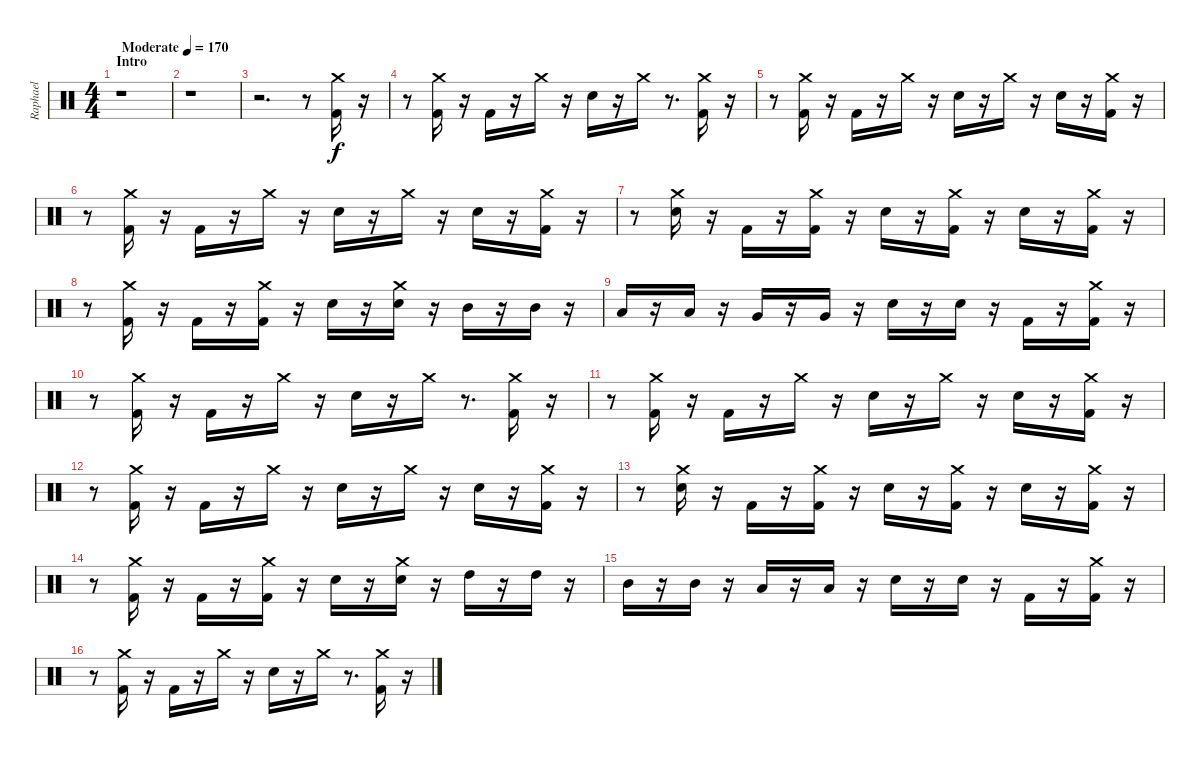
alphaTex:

\track ("Raphael" "Raphael") {instrument percussion}
\staff {score}
\articulation defaults
\ts (4 4)
\section ("" "Intro")
\tempo (170 "Moderate")
\clef neutral
\ks c
r.1{dy f} |
r.1 |
r.2{d} r.8 ("Kick (hit) 2" "Crash medium (hit)").16 r.16 |
r.8 ("Kick (hit) 2" "Crash medium (hit)").16 r.16 "Kick (hit) 2".16 r.16 "Crash medium (hit)".16 r.16 "Snare (hit) 2".16 r.16 "Crash medium (hit)".16 r.8{d} ("Kick (hit) 2" "Crash medium (hit)").16 r.16 |
r.8 ("Kick (hit) 2" "Crash medium (hit)").16 r.16 "Kick (hit) 2".16 r.16 "Crash medium (hit)".16 r.16 "Snare (hit) 2".16 r.16 "Crash medium (hit)".16 r.16 "Snare (hit) 2".16 r.16 ("Kick (hit) 2" "Crash medium (hit)").16 r.16 |
r.8 ("Kick (hit) 2" "Crash medium (hit)").16 r.16 "Kick (hit) 2".16 r.16 "Crash medium (hit)".16 r.16 "Snare (hit) 2".16 r.16 "Crash medium (hit)".16 r.16 "Snare (hit) 2".16 r.16 ("Kick (hit) 2" "Crash medium (hit)").16 r.16 |
r.8 ("Snare (hit) 2" "Crash medium (hit)").16 r.16 "Kick (hit) 2".16 r.16 ("Kick (hit) 2" "Crash medium (hit)").16 r.16 "Snare (hit) 2".16 r.16 ("Kick (hit) 2" "Crash medium (hit)").16 r.16 "Snare (hit) 2".16 r.16 ("Kick (hit) 2" "Crash medium (hit)").16 r.16 |
r.8 ("Kick (hit) 2" "Crash medium (hit)").16 r.16 "Kick (hit) 2".16 r.16 ("Kick (hit) 2" "Crash medium (hit)").16 r.16 "Snare (hit) 2".16 r.16 ("Snare (hit) 2" "Crash medium (hit)").16 r.16 "Mid Tom (hit)".16 r.16 "Mid Tom (hit)".16 r.16 |
"Low Tom (hit)".16 r.16 "Low Tom (hit)".16 r.16 "Very Low Tom (hit)".16 r.16 "Very Low Tom (hit)".16 r.16 "Snare (hit) 2".16 r.16 "Snare (hit) 2".16 r.16 "Kick (hit) 2".16 r.16 ("Kick (hit) 2" "Crash medium (hit)").16 r.16 |
r.8 ("Kick (hit) 2" "Crash medium (hit)").16 r.16 "Kick (hit) 2".16 r.16 "Crash medium (hit)".16 r.16 "Snare (hit) 2".16 r.16 "Crash medium (hit)".16 r.8{d} ("Kick (hit) 2" "Crash medium (hit)").16 r.16 |
r.8 ("Kick (hit) 2" "Crash medium (hit)").16 r.16 "Kick (hit) 2".16 r.16 "Crash medium (hit)".16 r.16 "Snare (hit) 2".16 r.16 "Crash medium (hit)".16 r.16 "Snare (hit) 2".16 r.16 ("Kick (hit) 2" "Crash medium (hit)").16 r.16 |
r.8 ("Kick (hit) 2" "Crash medium (hit)").16 r.16 "Kick (hit) 2".16 r.16 "Crash medium (hit)".16 r.16 "Snare (hit) 2".16 r.16 "Crash medium (hit)".16 r.16 "Snare (hit) 2".16 r.16 ("Kick (hit) 2" "Crash medium (hit)").16 r.16 |
r.8 ("Snare (hit) 2" "Crash medium (hit)").16 r.16 "Kick (hit) 2".16 r.16 ("Kick (hit) 2" "Crash medium (hit)").16 r.16 "Snare (hit) 2".16 r.16 ("Kick (hit) 2" "Crash medium (hit)").16 r.16 "Snare (hit) 2".16 r.16 ("Kick (hit) 2" "Crash medium (hit)").16 r.16 |
r.8 ("Kick (hit) 2" "Crash medium (hit)").16 r.16 "Kick (hit) 2".16 r.16 ("Kick (hit) 2" "Crash medium (hit)").16 r.16 "Snare (hit) 2".16 r.16 ("Snare (hit) 2" "Crash medium (hit)").16 r.16 "High Tom (hit)".16 r.16 "High Tom (hit)".16 r.16 |
"Mid Tom (hit)".16 r.16 "Mid Tom (hit)".16 r.16 "Low Tom (hit)".16 r.16 "Low Tom (hit)".16 r.16 "Snare (hit) 2".16 r.16 "Snare (hit) 2".16 r.16 "Kick (hit) 2".16 r.16 ("Kick (hit) 2" "Crash medium (hit)").16 r.16 |
r.8 ("Kick (hit) 2" "Crash medium (hit)").16 r.16 "Kick (hit) 2".16 r.16 "Crash medium (hit)".16 r.16 "Snare (hit) 2".16 r.16 "Crash medium (hit)".16 r.8{d} ("Kick (hit) 2" "Crash medium (hit)").16 r.16
